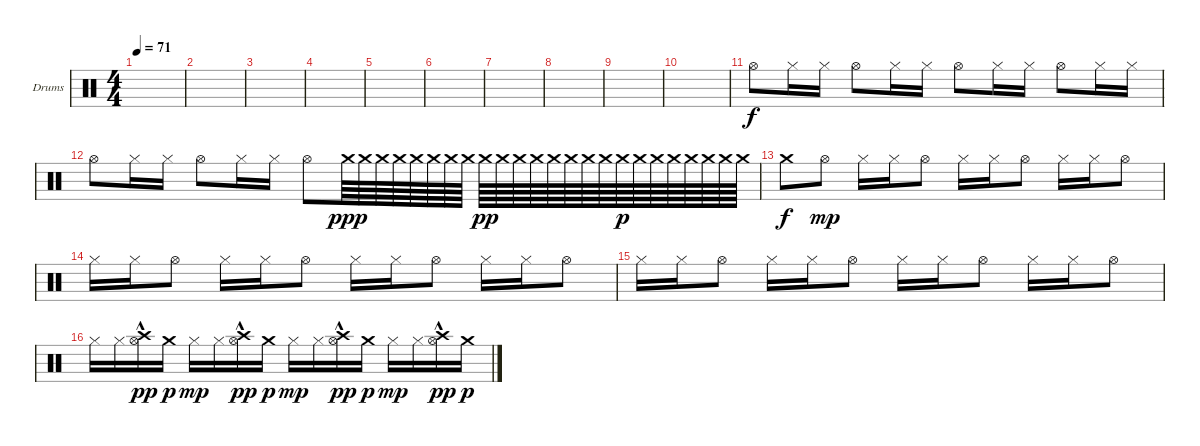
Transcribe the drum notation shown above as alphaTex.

\defaultSystemsLayout 4
\bracketExtendMode groupsimilarinstruments
\firstSystemTrackNameOrientation horizontal
\otherSystemsTrackNameOrientation horizontal
\track ("Drumkit" "Drums") {instrument percussion}
\staff {score}
\articulation defaults
\ts (4 4)
\tempo 71
\clef neutral
\scale
0.472222
\ks c
|
\scale
0.263889 |
\scale
0.263889 |
\scale
0.333333 |
\scale
0.333333 |
\scale
0.333333 |
\scale
0.333333 |
\scale
0.333333 |
\scale
0.333333 |
\scale
0.333333 |
\scale
0.333333 "Hi-Hat (open)".8 "Hi-Hat (closed)".16 "Hi-Hat (closed)".16 "Hi-Hat (open)".8 "Hi-Hat (closed)".16 "Hi-Hat (closed)".16 "Hi-Hat (open)".8 "Hi-Hat (closed)".16 "Hi-Hat (closed)".16 "Hi-Hat (open)".8 "Hi-Hat (closed)".16 "Hi-Hat (closed)".16 |
\scale
0.333333 "Hi-Hat (open)".8 "Hi-Hat (closed)".16 "Hi-Hat (closed)".16 "Hi-Hat (open)".8 "Hi-Hat (closed)".16 "Hi-Hat (closed)".16 "Hi-Hat (open)".8 "Crash medium (hit)".64{dy ppp} "Crash medium (hit)".64 "Crash medium (hit)".64 "Crash medium (hit)".64 "Crash medium (hit)".64 "Crash medium (hit)".64 "Crash medium (hit)".64 "Crash medium (hit)".64 "Crash medium (hit)".64{dy pp} "Crash medium (hit)".64 "Crash medium (hit)".64 "Crash medium (hit)".64 "Crash medium (hit)".64 "Crash medium (hit)".64 "Crash medium (hit)".64 "Crash medium (hit)".64 "Crash medium (hit)".64{dy p} "Crash medium (hit)".64 "Crash medium (hit)".64 "Crash medium (hit)".64 "Crash medium (hit)".64 "Crash medium (hit)".64 "Crash medium (hit)".64 "Crash medium (hit)".64 |
"Crash medium (hit)".8{dy f} "Hi-Hat (open)".8{dy mp} "Hi-Hat (closed)".16 "Hi-Hat (closed)".16 "Hi-Hat (open)".8 "Hi-Hat (closed)".16 "Hi-Hat (closed)".16 "Hi-Hat (open)".8 "Hi-Hat (closed)".16 "Hi-Hat (closed)".16 "Hi-Hat (open)".8 |
"Hi-Hat (closed)".16 "Hi-Hat (closed)".16 "Hi-Hat (open)".8 "Hi-Hat (closed)".16 "Hi-Hat (closed)".16 "Hi-Hat (open)".8 "Hi-Hat (closed)".16 "Hi-Hat (closed)".16 "Hi-Hat (open)".8 "Hi-Hat (closed)".16 "Hi-Hat (closed)".16 "Hi-Hat (open)".8 |
"Hi-Hat (closed)".16 "Hi-Hat (closed)".16 "Hi-Hat (open)".8 "Hi-Hat (closed)".16 "Hi-Hat (closed)".16 "Hi-Hat (open)".8 "Hi-Hat (closed)".16 "Hi-Hat (closed)".16 "Hi-Hat (open)".8 "Hi-Hat (closed)".16 "Hi-Hat (closed)".16 "Hi-Hat (open)".8 |
"Hi-Hat (closed)".16 "Hi-Hat (closed)".16 ("Crash high (hit)" "Hi-Hat (open)"{hac}).16{dy pp} "Crash medium (hit)".16{dy p} "Hi-Hat (closed)".16{dy mp} "Hi-Hat (closed)".16 ("Crash high (hit)" "Hi-Hat (open)"{hac}).16{dy pp} "Crash medium (hit)".16{dy p} "Hi-Hat (closed)".16{dy mp} "Hi-Hat (closed)".16 ("Crash high (hit)" "Hi-Hat (open)"{hac}).16{dy pp} "Crash medium (hit)".16{dy p} "Hi-Hat (closed)".16{dy mp} "Hi-Hat (closed)".16 ("Crash high (hit)" "Hi-Hat (open)"{hac}).16{dy pp} "Crash medium (hit)".16{dy p}
